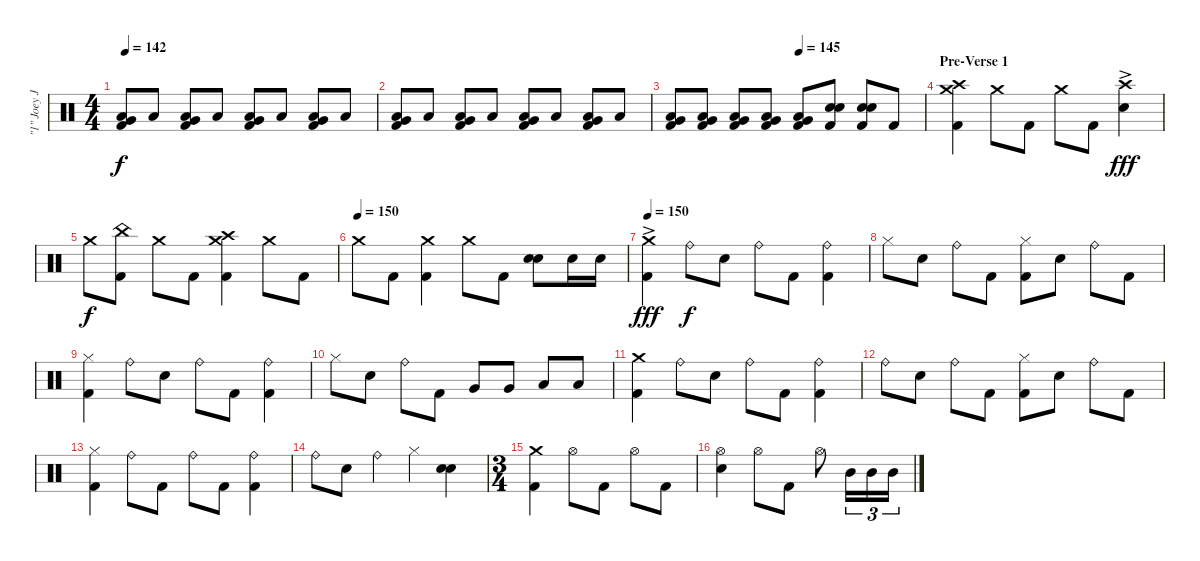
\track ("\"1\" Joey Jordison (Drums)" "\"1\" Joey J") {instrument percussion}
\staff {score}
\articulation defaults
\ts (4 4)
\tempo 142
\clef neutral
\ks c
("Very Low Tom (hit)" "Low Floor Tom (hit)" "Kick (hit) 2").8{dy f} "Low Floor Tom (hit)".8 ("Very Low Tom (hit)" "Low Floor Tom (hit)" "Kick (hit) 2").8 "Low Floor Tom (hit)".8 ("Very Low Tom (hit)" "Low Floor Tom (hit)" "Kick (hit) 2").8 "Low Floor Tom (hit)".8 ("Very Low Tom (hit)" "Low Floor Tom (hit)" "Kick (hit) 2").8 "Low Floor Tom (hit)".8 |
("Very Low Tom (hit)" "Low Floor Tom (hit)" "Kick (hit) 2").8 "Low Floor Tom (hit)".8 ("Very Low Tom (hit)" "Low Floor Tom (hit)" "Kick (hit) 2").8 "Low Floor Tom (hit)".8 ("Very Low Tom (hit)" "Low Floor Tom (hit)" "Kick (hit) 2").8 "Low Floor Tom (hit)".8 ("Very Low Tom (hit)" "Low Floor Tom (hit)" "Kick (hit) 2").8 "Low Floor Tom (hit)".8 |
\tempo (145 0.5)
("Very Low Tom (hit)" "Low Floor Tom (hit)" "Kick (hit) 2").8 ("Very Low Tom (hit)" "Low Floor Tom (hit)" "Kick (hit) 2").8 ("Very Low Tom (hit)" "Low Floor Tom (hit)" "Kick (hit) 2").8 ("Very Low Tom (hit)" "Low Floor Tom (hit)" "Kick (hit) 2").8 ("Very Low Tom (hit)" "Low Floor Tom (hit)" "Kick (hit) 2").8 ("Electric Snare (hit)" "Electric Snare (hit)" "Kick (hit) 2").8{bd 60} ("Electric Snare (hit)" "Electric Snare (hit)" "Kick (hit) 2").8{bd 60} "Kick (hit) 2".8 |
\section ("" "Pre-Verse 1")
("Crash high (hit)" "Crash medium (hit)" "Kick (hit) 2").4 "Crash medium (hit)".8 "Kick (hit) 2".8 "Crash medium (hit)".8 "Kick (hit) 2".8 ("Crash high (hit)"{ac} "Electric Snare (hit)").4{dy fff} |
"Crash medium (hit)".8{dy f} ("China (hit)" "Kick (hit) 2").8 "Crash medium (hit)".8 "Kick (hit) 2".8 ("Crash high (hit)" "Crash medium (hit)" "Kick (hit) 2").4 "Crash medium (hit)".8 "Kick (hit) 2".8 |
\tempo (150)
"Crash medium (hit)".8 "Kick (hit) 2".8 ("Crash medium (hit)" "Kick (hit) 2").4 "Crash medium (hit)".8 "Kick (hit) 2".8 ("Electric Snare (hit)" "Electric Snare (hit)").8{bd 120} "Electric Snare (hit)".16 "Electric Snare (hit)".16 |
\tempo 150
("Crash medium (hit)"{ac} "Kick (hit) 2").4{dy fff} "Ride (bell)".8{dy f} "Electric Snare (hit)".8 "Ride (bell)".8 "Kick (hit) 2".8 ("Ride (bell)" "Kick (hit) 2").4 |
"Hi-Hat (closed)".8 "Electric Snare (hit)".8 "Ride (bell)".8 "Kick (hit) 2".8 ("Hi-Hat (closed)" "Kick (hit) 2").8 "Electric Snare (hit)".8 "Ride (bell)".8 "Kick (hit) 2".8 |
("Hi-Hat (closed)" "Kick (hit) 2").4 "Ride (bell)".8 "Electric Snare (hit)".8 "Ride (bell)".8 "Kick (hit) 2".8 ("Ride (bell)" "Kick (hit) 2").4 |
"Hi-Hat (closed)".8 "Electric Snare (hit)".8 "Ride (bell)".8 "Kick (hit) 2".8 "Very Low Tom (hit)".8 "Very Low Tom (hit)".8 "Low Floor Tom (hit)".8 "Low Floor Tom (hit)".8 |
("Crash medium (hit)" "Kick (hit) 2").4 "Ride (bell)".8 "Electric Snare (hit)".8 "Ride (bell)".8 "Kick (hit) 2".8 ("Ride (bell)" "Kick (hit) 2").4 |
"Ride (bell)".8 "Electric Snare (hit)".8 "Ride (bell)".8 "Kick (hit) 2".8 ("Hi-Hat (closed)" "Kick (hit) 2").8 "Electric Snare (hit)".8 "Ride (bell)".8 "Kick (hit) 2".8 |
("Hi-Hat (closed)" "Kick (hit) 2").4 "Ride (bell)".8 "Kick (hit) 2".8 "Ride (bell)".8 "Kick (hit) 2".8 ("Ride (bell)" "Kick (hit) 2").4 |
"Ride (bell)".8 "Electric Snare (hit)".8 "Ride (bell)".4 "Hi-Hat (closed)".4 ("Electric Snare (hit)" "Electric Snare (hit)").4{bd 120} |
\ts (3 4)
("Crash medium (hit)" "Kick (hit) 2").4 "Hi-Hat (open)".8 "Kick (hit) 2".8 "Hi-Hat (open)".8 "Kick (hit) 2".8 |
("Hi-Hat (open)" "Electric Snare (hit)").4 "Hi-Hat (open)".8 "Kick (hit) 2".8 "Hi-Hat (open)".8 "Mid Tom (hit)".16{tu (3 2)} "Mid Tom (hit)".16{tu (3 2)} "Mid Tom (hit)".16{tu (3 2)}
